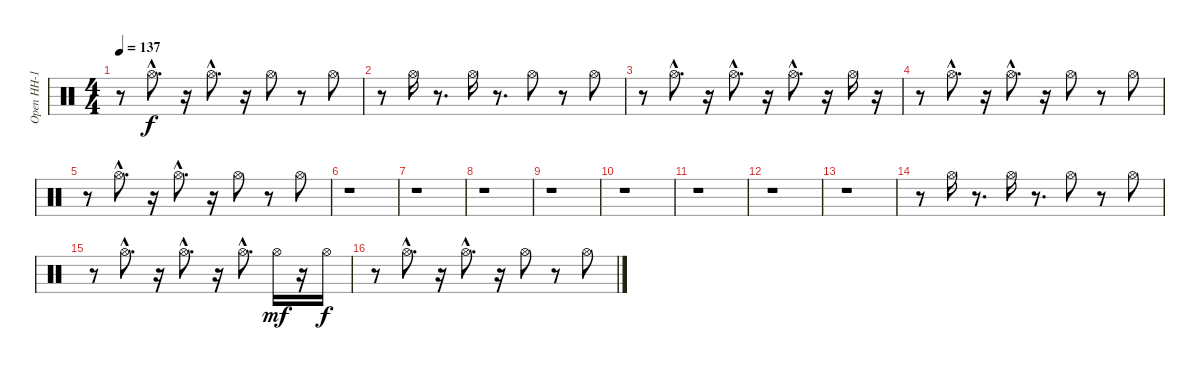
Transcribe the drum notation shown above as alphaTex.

\track ("Open HH-1" "Open HH-1") {instrument percussion}
\staff {score}
\articulation defaults
\ts (4 4)
\tempo 137
\clef neutral
\ks c
r.8{dy f} "Hi-Hat (open)"{hac}.8{d} r.16 "Hi-Hat (open)"{hac}.8{d} r.16 "Hi-Hat (open)".8 r.8 "Hi-Hat (open)".8 |
r.8 "Hi-Hat (open)".16 r.8{d} "Hi-Hat (open)".16 r.8{d} "Hi-Hat (open)".8 r.8 "Hi-Hat (open)".8 |
r.8 "Hi-Hat (open)"{hac}.8{d} r.16 "Hi-Hat (open)"{hac}.8{d} r.16 "Hi-Hat (open)"{hac}.8{d} r.16 "Hi-Hat (open)".16 r.16 |
r.8 "Hi-Hat (open)"{hac}.8{d} r.16 "Hi-Hat (open)"{hac}.8{d} r.16 "Hi-Hat (open)".8 r.8 "Hi-Hat (open)".8 |
r.8 "Hi-Hat (open)"{hac}.8{d} r.16 "Hi-Hat (open)"{hac}.8{d} r.16 "Hi-Hat (open)".8 r.8 "Hi-Hat (open)".8 |
r.1 |
r.1 |
r.1 |
r.1 |
r.1 |
r.1 |
r.1 |
r.1 |
r.8 "Hi-Hat (open)".16 r.8{d} "Hi-Hat (open)".16 r.8{d} "Hi-Hat (open)".8 r.8 "Hi-Hat (open)".8 |
r.8 "Hi-Hat (open)"{hac}.8{d} r.16 "Hi-Hat (open)"{hac}.8{d} r.16 "Hi-Hat (open)"{hac}.8{d} "Hi-Hat (open)".16{dy mf} r.16 "Hi-Hat (open)".16{dy f} |
r.8 "Hi-Hat (open)"{hac}.8{d} r.16 "Hi-Hat (open)"{hac}.8{d} r.16 "Hi-Hat (open)".8 r.8 "Hi-Hat (open)".8
